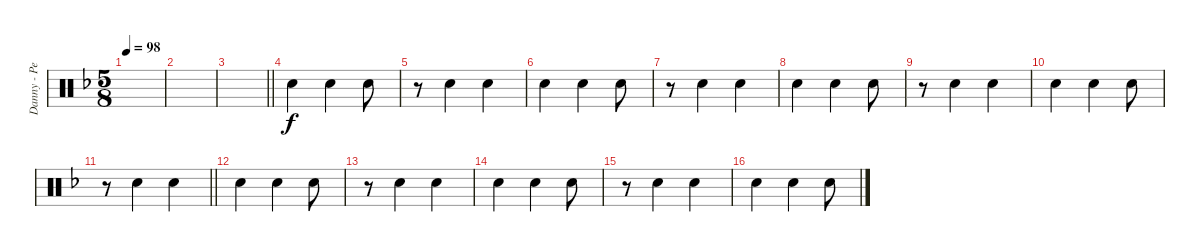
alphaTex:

\track ("Danny - Percusion" "Danny - Pe") {instrument percussion}
\staff {score}
\articulation defaults
\ts (5 8)
\tempo 98
\clef neutral
\ks dminor
|
|
\barLineRight lightlight
|
"Hand Clap (hit)".4{dy f} "Hand Clap (hit)".4 "Hand Clap (hit)".8 |
r.8 "Hand Clap (hit)".4 "Hand Clap (hit)".4 |
"Hand Clap (hit)".4 "Hand Clap (hit)".4 "Hand Clap (hit)".8 |
r.8 "Hand Clap (hit)".4 "Hand Clap (hit)".4 |
"Hand Clap (hit)".4 "Hand Clap (hit)".4 "Hand Clap (hit)".8 |
r.8 "Hand Clap (hit)".4 "Hand Clap (hit)".4 |
"Hand Clap (hit)".4 "Hand Clap (hit)".4 "Hand Clap (hit)".8 |
\barLineRight lightlight
r.8 "Hand Clap (hit)".4 "Hand Clap (hit)".4 |
"Hand Clap (hit)".4 "Hand Clap (hit)".4 "Hand Clap (hit)".8 |
r.8 "Hand Clap (hit)".4 "Hand Clap (hit)".4 |
"Hand Clap (hit)".4 "Hand Clap (hit)".4 "Hand Clap (hit)".8 |
r.8 "Hand Clap (hit)".4 "Hand Clap (hit)".4 |
"Hand Clap (hit)".4 "Hand Clap (hit)".4 "Hand Clap (hit)".8
